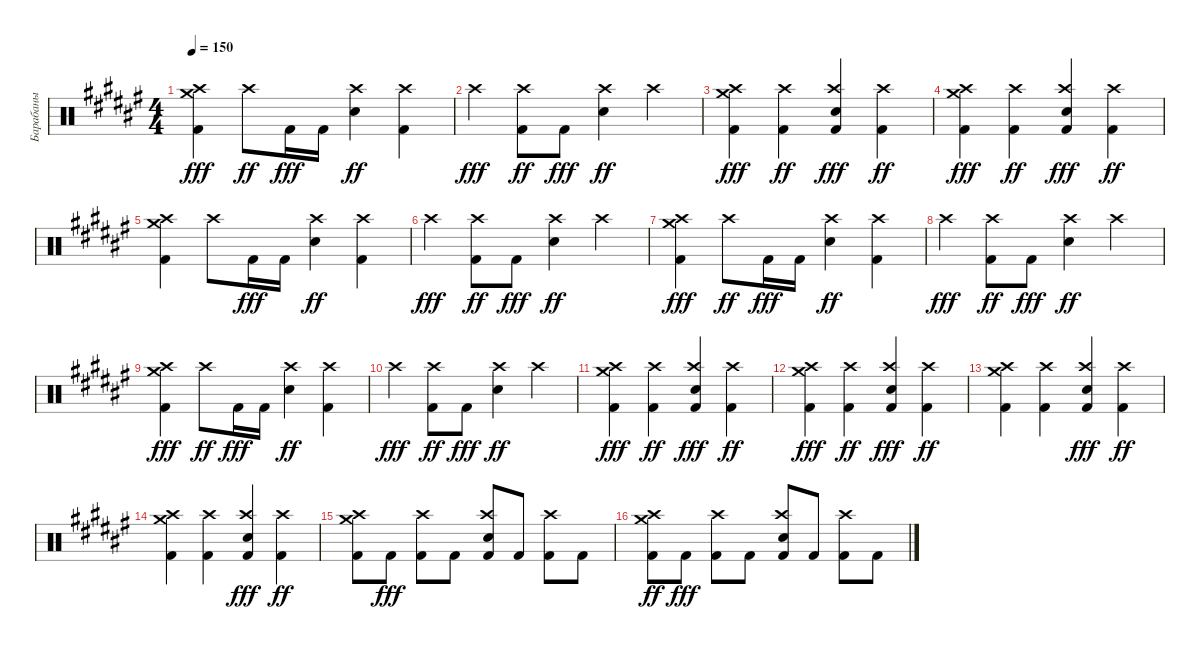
\track ("Барабаны" "Барабаны") {instrument percussion}
\staff {score}
\articulation defaults
\ts (4 4)
\tempo 150
\clef neutral
\ks d#minor
("Kick (hit) 2" "Crash high (hit)" "Crash medium (hit)").4{dy fff} "Crash high (hit)".8{dy ff} "Kick (hit) 2".16{dy fff} "Kick (hit) 2".16 ("Electric Snare (hit)" "Crash high (hit)").4{dy ff} ("Kick (hit) 2" "Crash high (hit)").4 |
"Crash high (hit)".4{dy fff} ("Kick (hit) 2" "Crash high (hit)").8{dy ff} "Kick (hit) 2".8{dy fff} ("Electric Snare (hit)" "Crash high (hit)").4{dy ff} "Crash high (hit)".4 |
("Kick (hit) 2" "Crash high (hit)" "Crash medium (hit)").4{dy fff} ("Kick (hit) 2" "Crash high (hit)").4{dy ff} ("Kick (hit) 2" "Crash high (hit)" "Electric Snare (hit)").4{dy fff} ("Kick (hit) 2" "Crash high (hit)").4{dy ff} |
("Kick (hit) 2" "Crash high (hit)" "Crash medium (hit)").4{dy fff} ("Kick (hit) 2" "Crash high (hit)").4{dy ff} ("Kick (hit) 2" "Crash high (hit)" "Electric Snare (hit)").4{dy fff} ("Kick (hit) 2" "Crash high (hit)").4{dy ff} |
("Kick (hit) 2" "Crash high (hit)" "Crash medium (hit)").4 "Crash high (hit)".8 "Kick (hit) 2".16{dy fff} "Kick (hit) 2".16 ("Electric Snare (hit)" "Crash high (hit)").4{dy ff} ("Kick (hit) 2" "Crash high (hit)").4 |
"Crash high (hit)".4{dy fff} ("Kick (hit) 2" "Crash high (hit)").8{dy ff} "Kick (hit) 2".8{dy fff} ("Electric Snare (hit)" "Crash high (hit)").4{dy ff} "Crash high (hit)".4 |
("Kick (hit) 2" "Crash high (hit)" "Crash medium (hit)").4{dy fff} "Crash high (hit)".8{dy ff} "Kick (hit) 2".16{dy fff} "Kick (hit) 2".16 ("Electric Snare (hit)" "Crash high (hit)").4{dy ff} ("Kick (hit) 2" "Crash high (hit)").4 |
"Crash high (hit)".4{dy fff} ("Kick (hit) 2" "Crash high (hit)").8{dy ff} "Kick (hit) 2".8{dy fff} ("Electric Snare (hit)" "Crash high (hit)").4{dy ff} "Crash high (hit)".4 |
("Kick (hit) 2" "Crash high (hit)" "Crash medium (hit)").4{dy fff} "Crash high (hit)".8{dy ff} "Kick (hit) 2".16{dy fff} "Kick (hit) 2".16 ("Electric Snare (hit)" "Crash high (hit)").4{dy ff} ("Kick (hit) 2" "Crash high (hit)").4 |
"Crash high (hit)".4{dy fff} ("Kick (hit) 2" "Crash high (hit)").8{dy ff} "Kick (hit) 2".8{dy fff} ("Electric Snare (hit)" "Crash high (hit)").4{dy ff} "Crash high (hit)".4 |
("Kick (hit) 2" "Crash high (hit)" "Crash medium (hit)").4{dy fff} ("Kick (hit) 2" "Crash high (hit)").4{dy ff} ("Kick (hit) 2" "Crash high (hit)" "Electric Snare (hit)").4{dy fff} ("Kick (hit) 2" "Crash high (hit)").4{dy ff} |
("Kick (hit) 2" "Crash high (hit)" "Crash medium (hit)").4{dy fff} ("Kick (hit) 2" "Crash high (hit)").4{dy ff} ("Kick (hit) 2" "Crash high (hit)" "Electric Snare (hit)").4{dy fff} ("Kick (hit) 2" "Crash high (hit)").4{dy ff} |
("Kick (hit) 2" "Crash high (hit)" "Crash medium (hit)").4 ("Kick (hit) 2" "Crash high (hit)").4 ("Kick (hit) 2" "Crash high (hit)" "Electric Snare (hit)").4{dy fff} ("Kick (hit) 2" "Crash high (hit)").4{dy ff} |
("Kick (hit) 2" "Crash high (hit)" "Crash medium (hit)").4 ("Kick (hit) 2" "Crash high (hit)").4 ("Kick (hit) 2" "Crash high (hit)" "Electric Snare (hit)").4{dy fff} ("Kick (hit) 2" "Crash high (hit)").4{dy ff} |
("Crash high (hit)" "Kick (hit) 2" "Crash medium (hit)").8 "Kick (hit) 2".8{dy fff} ("Crash high (hit)" "Kick (hit) 2").8 "Kick (hit) 2".8 ("Crash high (hit)" "Kick (hit) 2" "Electric Snare (hit)").8 "Kick (hit) 2".8 ("Crash high (hit)" "Kick (hit) 2").8 "Kick (hit) 2".8 |
("Crash high (hit)" "Kick (hit) 2" "Crash medium (hit)").8{dy ff} "Kick (hit) 2".8{dy fff} ("Crash high (hit)" "Kick (hit) 2").8 "Kick (hit) 2".8 ("Crash high (hit)" "Kick (hit) 2" "Electric Snare (hit)").8 "Kick (hit) 2".8 ("Crash high (hit)" "Kick (hit) 2").8 "Kick (hit) 2".8
